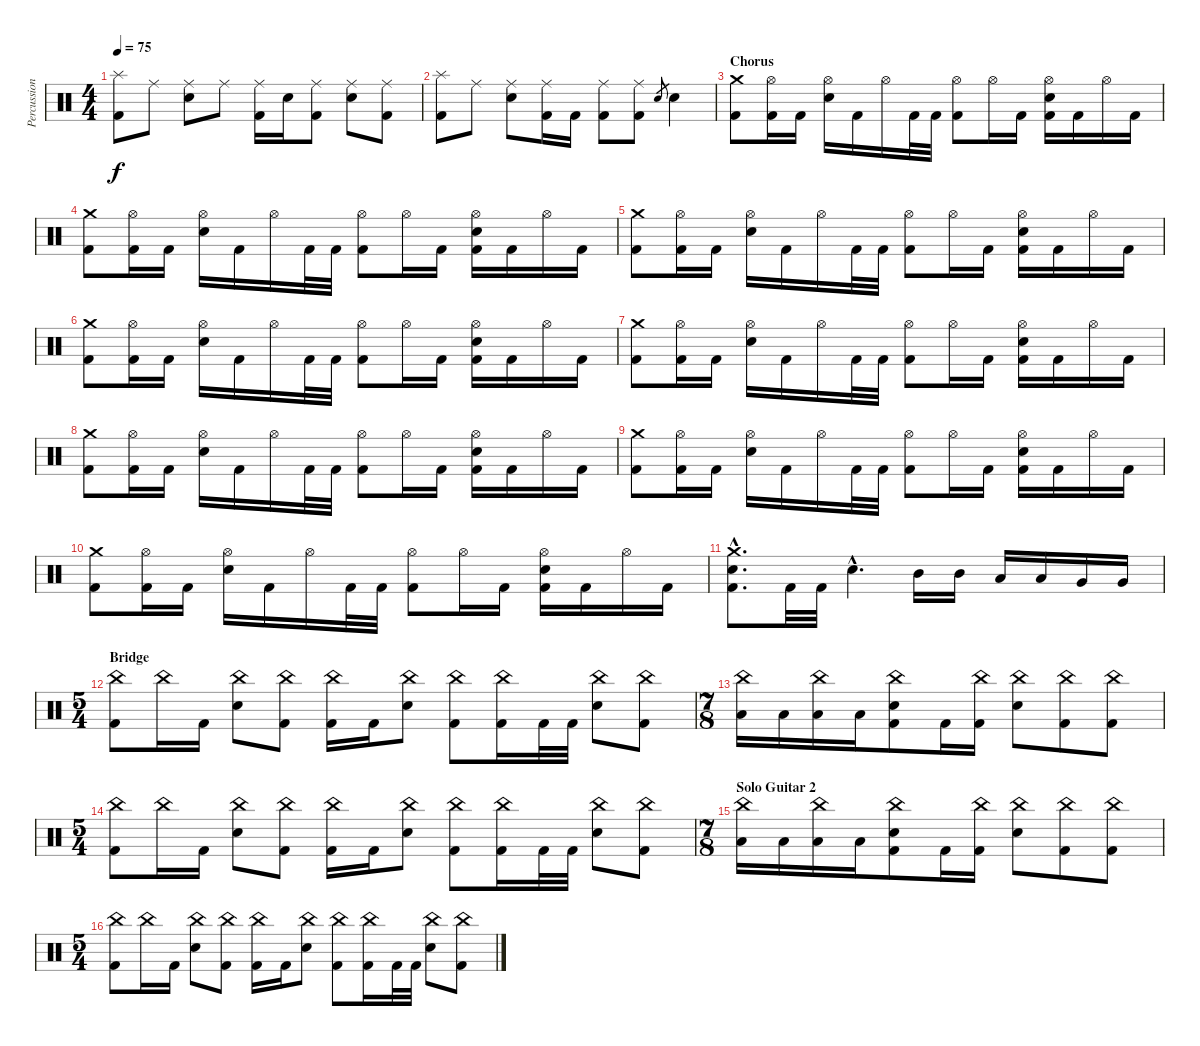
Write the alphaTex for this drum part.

\track ("Percussion" "Percussion") {instrument percussion}
\staff {score}
\articulation defaults
\ts (4 4)
\tempo 75
\clef neutral
\ks c
("Splash (hit)" "Kick (hit) 2").8{dy f} "Ride (middle)".8 ("Ride (middle)" "Electric Snare (hit)").8 "Ride (middle)".8 ("Ride (middle)" "Kick (hit) 2").16 "Electric Snare (hit)".16 ("Ride (middle)" "Kick (hit) 2").8 ("Ride (middle)" "Electric Snare (hit)").8 ("Ride (middle)" "Kick (hit) 2").8 |
("Splash (hit)" "Kick (hit) 2").8 "Ride (middle)".8 ("Ride (middle)" "Electric Snare (hit)").8 ("Ride (middle)" "Kick (hit) 2").16 "Kick (hit) 2".16 ("Ride (middle)" "Kick (hit) 2").8 ("Ride (middle)" "Kick (hit) 2").8 "Electric Snare (hit)".8{gr} "Electric Snare (hit)".4 |
\section ("" "Chorus")
("Crash medium (hit)" "Kick (hit) 2").8 ("Hi-Hat (open)" "Kick (hit) 2").16 "Kick (hit) 2".16 ("Hi-Hat (open)" "Electric Snare (hit)").16 "Kick (hit) 2".16 "Hi-Hat (open)".16 "Kick (hit) 2".32 "Kick (hit) 2".32 ("Hi-Hat (open)" "Kick (hit) 2").8 "Hi-Hat (open)".16 "Kick (hit) 2".16 ("Hi-Hat (open)" "Electric Snare (hit)" "Kick (hit) 2").16 "Kick (hit) 2".16 "Hi-Hat (open)".16 "Kick (hit) 2".16 |
("Crash medium (hit)" "Kick (hit) 2").8 ("Hi-Hat (open)" "Kick (hit) 2").16 "Kick (hit) 2".16 ("Hi-Hat (open)" "Electric Snare (hit)").16 "Kick (hit) 2".16 "Hi-Hat (open)".16 "Kick (hit) 2".32 "Kick (hit) 2".32 ("Hi-Hat (open)" "Kick (hit) 2").8 "Hi-Hat (open)".16 "Kick (hit) 2".16 ("Hi-Hat (open)" "Electric Snare (hit)" "Kick (hit) 2").16 "Kick (hit) 2".16 "Hi-Hat (open)".16 "Kick (hit) 2".16 |
("Crash medium (hit)" "Kick (hit) 2").8 ("Hi-Hat (open)" "Kick (hit) 2").16 "Kick (hit) 2".16 ("Hi-Hat (open)" "Electric Snare (hit)").16 "Kick (hit) 2".16 "Hi-Hat (open)".16 "Kick (hit) 2".32 "Kick (hit) 2".32 ("Hi-Hat (open)" "Kick (hit) 2").8 "Hi-Hat (open)".16 "Kick (hit) 2".16 ("Hi-Hat (open)" "Electric Snare (hit)" "Kick (hit) 2").16 "Kick (hit) 2".16 "Hi-Hat (open)".16 "Kick (hit) 2".16 |
("Crash medium (hit)" "Kick (hit) 2").8 ("Hi-Hat (open)" "Kick (hit) 2").16 "Kick (hit) 2".16 ("Hi-Hat (open)" "Electric Snare (hit)").16 "Kick (hit) 2".16 "Hi-Hat (open)".16 "Kick (hit) 2".32 "Kick (hit) 2".32 ("Hi-Hat (open)" "Kick (hit) 2").8 "Hi-Hat (open)".16 "Kick (hit) 2".16 ("Hi-Hat (open)" "Electric Snare (hit)" "Kick (hit) 2").16 "Kick (hit) 2".16 "Hi-Hat (open)".16 "Kick (hit) 2".16 |
("Crash medium (hit)" "Kick (hit) 2").8 ("Hi-Hat (open)" "Kick (hit) 2").16 "Kick (hit) 2".16 ("Hi-Hat (open)" "Electric Snare (hit)").16 "Kick (hit) 2".16 "Hi-Hat (open)".16 "Kick (hit) 2".32 "Kick (hit) 2".32 ("Hi-Hat (open)" "Kick (hit) 2").8 "Hi-Hat (open)".16 "Kick (hit) 2".16 ("Hi-Hat (open)" "Electric Snare (hit)" "Kick (hit) 2").16 "Kick (hit) 2".16 "Hi-Hat (open)".16 "Kick (hit) 2".16 |
("Crash medium (hit)" "Kick (hit) 2").8 ("Hi-Hat (open)" "Kick (hit) 2").16 "Kick (hit) 2".16 ("Hi-Hat (open)" "Electric Snare (hit)").16 "Kick (hit) 2".16 "Hi-Hat (open)".16 "Kick (hit) 2".32 "Kick (hit) 2".32 ("Hi-Hat (open)" "Kick (hit) 2").8 "Hi-Hat (open)".16 "Kick (hit) 2".16 ("Hi-Hat (open)" "Electric Snare (hit)" "Kick (hit) 2").16 "Kick (hit) 2".16 "Hi-Hat (open)".16 "Kick (hit) 2".16 |
("Crash medium (hit)" "Kick (hit) 2").8 ("Hi-Hat (open)" "Kick (hit) 2").16 "Kick (hit) 2".16 ("Hi-Hat (open)" "Electric Snare (hit)").16 "Kick (hit) 2".16 "Hi-Hat (open)".16 "Kick (hit) 2".32 "Kick (hit) 2".32 ("Hi-Hat (open)" "Kick (hit) 2").8 "Hi-Hat (open)".16 "Kick (hit) 2".16 ("Hi-Hat (open)" "Electric Snare (hit)" "Kick (hit) 2").16 "Kick (hit) 2".16 "Hi-Hat (open)".16 "Kick (hit) 2".16 |
("Crash medium (hit)" "Kick (hit) 2").8 ("Hi-Hat (open)" "Kick (hit) 2").16 "Kick (hit) 2".16 ("Hi-Hat (open)" "Electric Snare (hit)").16 "Kick (hit) 2".16 "Hi-Hat (open)".16 "Kick (hit) 2".32 "Kick (hit) 2".32 ("Hi-Hat (open)" "Kick (hit) 2").8 "Hi-Hat (open)".16 "Kick (hit) 2".16 ("Hi-Hat (open)" "Electric Snare (hit)" "Kick (hit) 2").16 "Kick (hit) 2".16 "Hi-Hat (open)".16 "Kick (hit) 2".16 |
("Crash medium (hit)"{hac} "Electric Snare (hit)"{hac} "Kick (hit) 2"{hac}).8{d} "Kick (hit) 2".32 "Kick (hit) 2".32 "Electric Snare (hit)"{hac}.4{d} "Mid Tom (hit)".16 "Mid Tom (hit)".16 "Low Tom (hit)".16 "Low Tom (hit)".16 "Very Low Tom (hit)".16 "Very Low Tom (hit)".16 |
\ts (5 4)
\section ("" "Bridge")
("China (hit)" "Kick (hit) 2").8 "China (hit)".16 "Kick (hit) 2".16 ("China (hit)" "Electric Snare (hit)").8 ("China (hit)" "Kick (hit) 2").8 ("China (hit)" "Kick (hit) 2").16 "Kick (hit) 2".16 ("China (hit)" "Electric Snare (hit)").8 ("China (hit)" "Kick (hit) 2").8 ("China (hit)" "Kick (hit) 2").16 "Kick (hit) 2".32 "Kick (hit) 2".32 ("China (hit)" "Electric Snare (hit)").8 ("China (hit)" "Kick (hit) 2").8 |
\ts (7 8)
("China (hit)" "Low Tom (hit)").16 "Low Tom (hit)".16 ("China (hit)" "Low Tom (hit)").16 "Low Tom (hit)".16 ("China (hit)" "Electric Snare (hit)" "Kick (hit) 2").8 "Kick (hit) 2".16 ("China (hit)" "Kick (hit) 2").16 ("China (hit)" "Electric Snare (hit)").8 ("China (hit)" "Kick (hit) 2").8 ("China (hit)" "Kick (hit) 2").8 |
\ts (5 4)
("China (hit)" "Kick (hit) 2").8 "China (hit)".16 "Kick (hit) 2".16 ("China (hit)" "Electric Snare (hit)").8 ("China (hit)" "Kick (hit) 2").8 ("China (hit)" "Kick (hit) 2").16 "Kick (hit) 2".16 ("China (hit)" "Electric Snare (hit)").8 ("China (hit)" "Kick (hit) 2").8 ("China (hit)" "Kick (hit) 2").16 "Kick (hit) 2".32 "Kick (hit) 2".32 ("China (hit)" "Electric Snare (hit)").8 ("China (hit)" "Kick (hit) 2").8 |
\ts (7 8)
\section ("" "Solo Guitar 2")
("China (hit)" "Low Tom (hit)").16 "Low Tom (hit)".16 ("China (hit)" "Low Tom (hit)").16 "Low Tom (hit)".16 ("China (hit)" "Electric Snare (hit)" "Kick (hit) 2").8 "Kick (hit) 2".16 ("China (hit)" "Kick (hit) 2").16 ("China (hit)" "Electric Snare (hit)").8 ("China (hit)" "Kick (hit) 2").8 ("China (hit)" "Kick (hit) 2").8 |
\ts (5 4)
("China (hit)" "Kick (hit) 2").8 "China (hit)".16 "Kick (hit) 2".16 ("China (hit)" "Electric Snare (hit)").8 ("China (hit)" "Kick (hit) 2").8 ("China (hit)" "Kick (hit) 2").16 "Kick (hit) 2".16 ("China (hit)" "Electric Snare (hit)").8 ("China (hit)" "Kick (hit) 2").8 ("China (hit)" "Kick (hit) 2").16 "Kick (hit) 2".32 "Kick (hit) 2".32 ("China (hit)" "Electric Snare (hit)").8 ("China (hit)" "Kick (hit) 2").8
